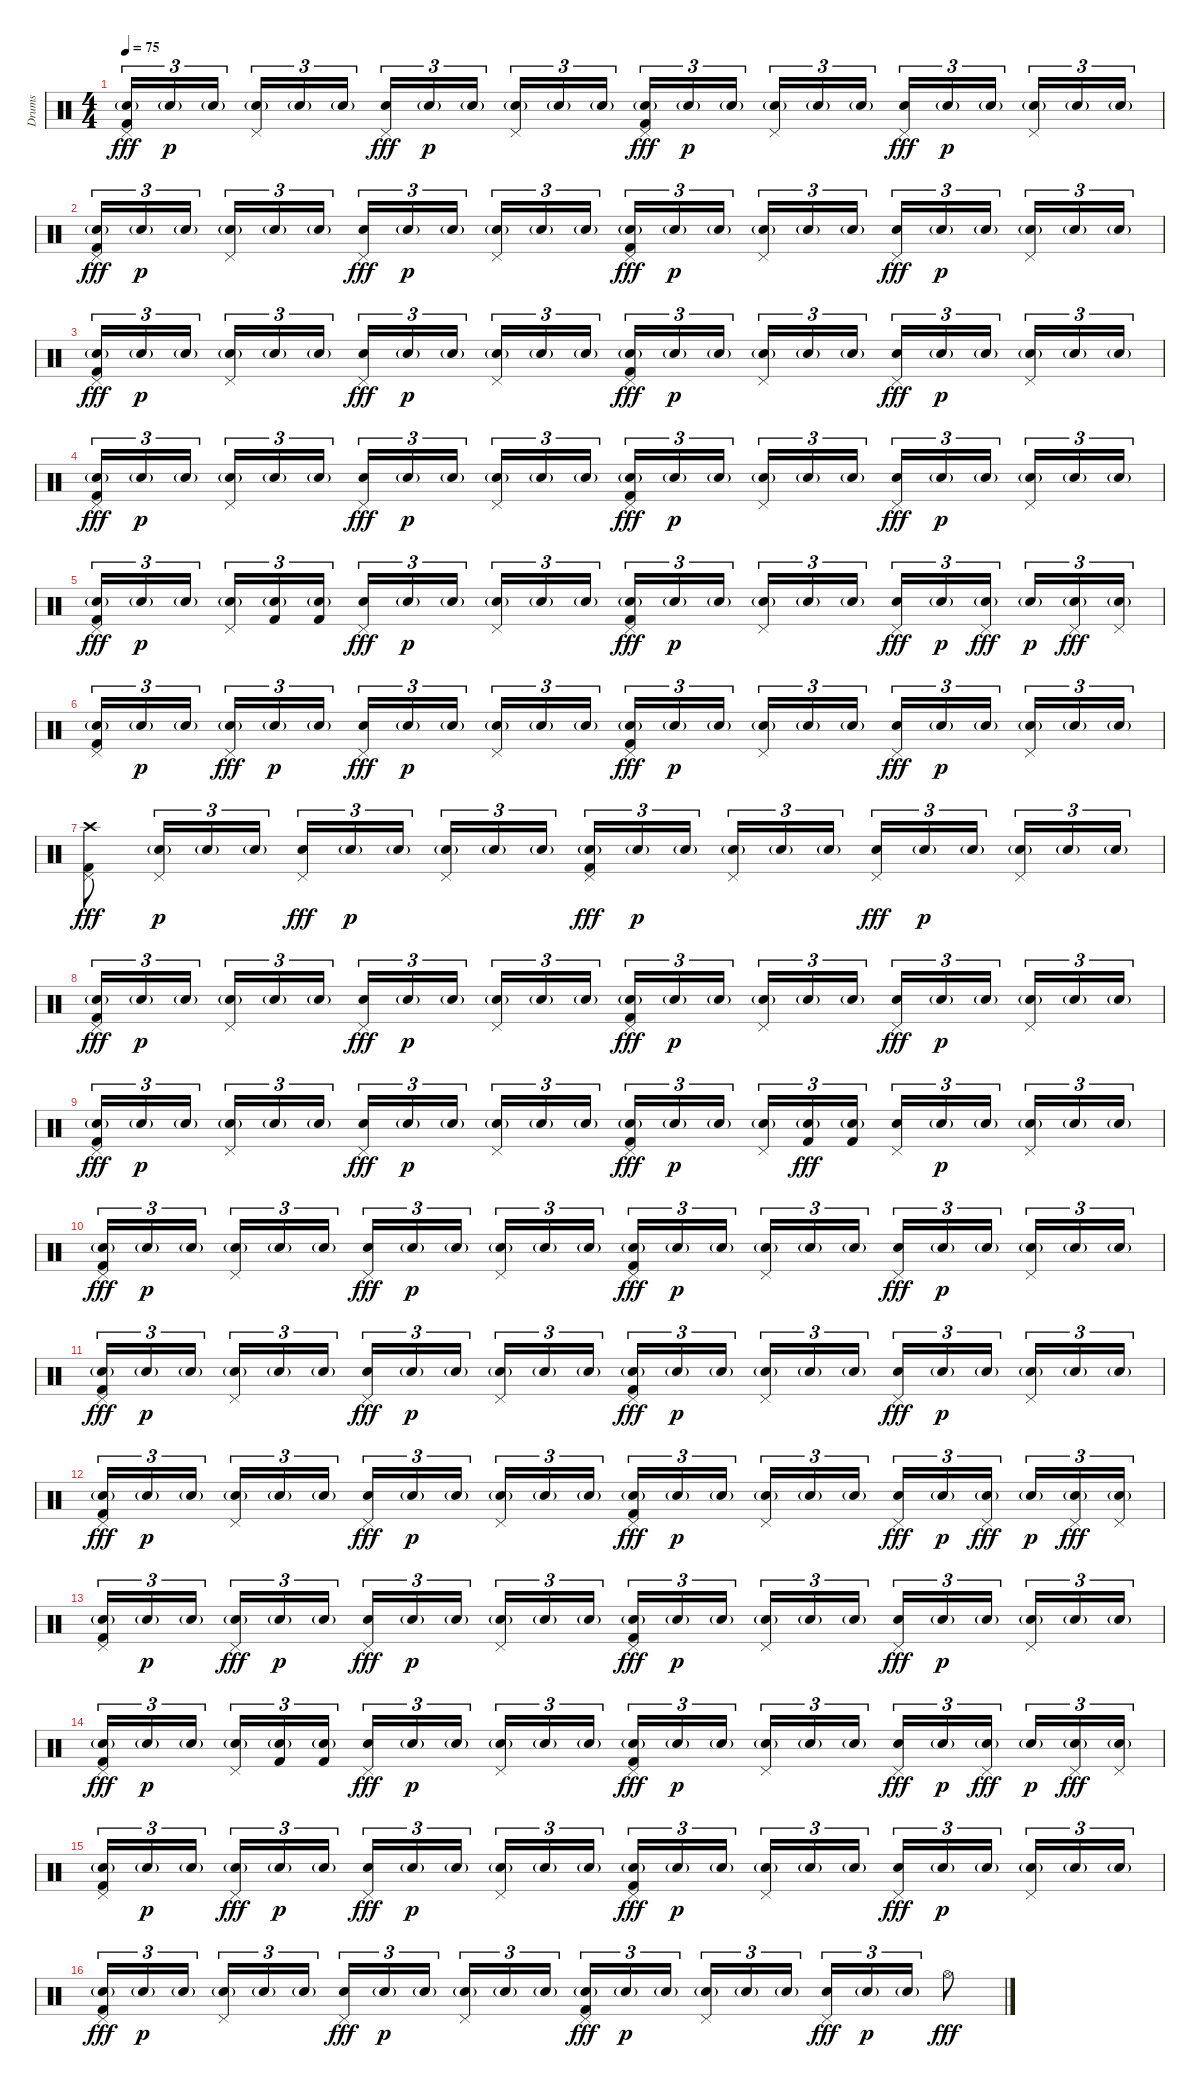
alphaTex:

\track ("Drums" "Drums") {instrument percussion}
\staff {score}
\articulation defaults
\ts (4 4)
\tempo 75
\clef neutral
\ks c
("Snare (hit) 2"{g} "Kick (hit) 2" "Pedal Hi-Hat (hit)").16{tu (3 2) dy fff} "Snare (hit) 2"{g}.16{tu (3 2) dy p} "Snare (hit) 2"{g}.16{tu (3 2)} ("Snare (hit) 2"{g} "Pedal Hi-Hat (hit)").16{tu (3 2)} "Snare (hit) 2"{g}.16{tu (3 2)} "Snare (hit) 2"{g}.16{tu (3 2)} ("Electric Snare (hit)" "Pedal Hi-Hat (hit)").16{tu (3 2) dy fff} "Snare (hit) 2"{g}.16{tu (3 2) dy p} "Snare (hit) 2"{g}.16{tu (3 2)} ("Snare (hit) 2"{g} "Pedal Hi-Hat (hit)").16{tu (3 2)} "Snare (hit) 2"{g}.16{tu (3 2)} "Snare (hit) 2"{g}.16{tu (3 2)} ("Snare (hit) 2"{g} "Kick (hit) 2" "Pedal Hi-Hat (hit)").16{tu (3 2) dy fff} "Snare (hit) 2"{g}.16{tu (3 2) dy p} "Snare (hit) 2"{g}.16{tu (3 2)} ("Snare (hit) 2"{g} "Pedal Hi-Hat (hit)").16{tu (3 2)} "Snare (hit) 2"{g}.16{tu (3 2)} "Snare (hit) 2"{g}.16{tu (3 2)} ("Electric Snare (hit)" "Pedal Hi-Hat (hit)").16{tu (3 2) dy fff} "Snare (hit) 2"{g}.16{tu (3 2) dy p} "Snare (hit) 2"{g}.16{tu (3 2)} ("Snare (hit) 2"{g} "Pedal Hi-Hat (hit)").16{tu (3 2)} "Snare (hit) 2"{g}.16{tu (3 2)} "Snare (hit) 2"{g}.16{tu (3 2)} |
("Snare (hit) 2"{g} "Kick (hit) 2" "Pedal Hi-Hat (hit)").16{tu (3 2) dy fff} "Snare (hit) 2"{g}.16{tu (3 2) dy p} "Snare (hit) 2"{g}.16{tu (3 2)} ("Snare (hit) 2"{g} "Pedal Hi-Hat (hit)").16{tu (3 2)} "Snare (hit) 2"{g}.16{tu (3 2)} "Snare (hit) 2"{g}.16{tu (3 2)} ("Electric Snare (hit)" "Pedal Hi-Hat (hit)").16{tu (3 2) dy fff} "Snare (hit) 2"{g}.16{tu (3 2) dy p} "Snare (hit) 2"{g}.16{tu (3 2)} ("Snare (hit) 2"{g} "Pedal Hi-Hat (hit)").16{tu (3 2)} "Snare (hit) 2"{g}.16{tu (3 2)} "Snare (hit) 2"{g}.16{tu (3 2)} ("Snare (hit) 2"{g} "Kick (hit) 2" "Pedal Hi-Hat (hit)").16{tu (3 2) dy fff} "Snare (hit) 2"{g}.16{tu (3 2) dy p} "Snare (hit) 2"{g}.16{tu (3 2)} ("Snare (hit) 2"{g} "Pedal Hi-Hat (hit)").16{tu (3 2)} "Snare (hit) 2"{g}.16{tu (3 2)} "Snare (hit) 2"{g}.16{tu (3 2)} ("Electric Snare (hit)" "Pedal Hi-Hat (hit)").16{tu (3 2) dy fff} "Snare (hit) 2"{g}.16{tu (3 2) dy p} "Snare (hit) 2"{g}.16{tu (3 2)} ("Snare (hit) 2"{g} "Pedal Hi-Hat (hit)").16{tu (3 2)} "Snare (hit) 2"{g}.16{tu (3 2)} "Snare (hit) 2"{g}.16{tu (3 2)} |
("Snare (hit) 2"{g} "Kick (hit) 2" "Pedal Hi-Hat (hit)").16{tu (3 2) dy fff} "Snare (hit) 2"{g}.16{tu (3 2) dy p} "Snare (hit) 2"{g}.16{tu (3 2)} ("Snare (hit) 2"{g} "Pedal Hi-Hat (hit)").16{tu (3 2)} "Snare (hit) 2"{g}.16{tu (3 2)} "Snare (hit) 2"{g}.16{tu (3 2)} ("Electric Snare (hit)" "Pedal Hi-Hat (hit)").16{tu (3 2) dy fff} "Snare (hit) 2"{g}.16{tu (3 2) dy p} "Snare (hit) 2"{g}.16{tu (3 2)} ("Snare (hit) 2"{g} "Pedal Hi-Hat (hit)").16{tu (3 2)} "Snare (hit) 2"{g}.16{tu (3 2)} "Snare (hit) 2"{g}.16{tu (3 2)} ("Snare (hit) 2"{g} "Kick (hit) 2" "Pedal Hi-Hat (hit)").16{tu (3 2) dy fff} "Snare (hit) 2"{g}.16{tu (3 2) dy p} "Snare (hit) 2"{g}.16{tu (3 2)} ("Snare (hit) 2"{g} "Pedal Hi-Hat (hit)").16{tu (3 2)} "Snare (hit) 2"{g}.16{tu (3 2)} "Snare (hit) 2"{g}.16{tu (3 2)} ("Electric Snare (hit)" "Pedal Hi-Hat (hit)").16{tu (3 2) dy fff} "Snare (hit) 2"{g}.16{tu (3 2) dy p} "Snare (hit) 2"{g}.16{tu (3 2)} ("Snare (hit) 2"{g} "Pedal Hi-Hat (hit)").16{tu (3 2)} "Snare (hit) 2"{g}.16{tu (3 2)} "Snare (hit) 2"{g}.16{tu (3 2)} |
("Snare (hit) 2"{g} "Kick (hit) 2" "Pedal Hi-Hat (hit)").16{tu (3 2) dy fff} "Snare (hit) 2"{g}.16{tu (3 2) dy p} "Snare (hit) 2"{g}.16{tu (3 2)} ("Snare (hit) 2"{g} "Pedal Hi-Hat (hit)").16{tu (3 2)} "Snare (hit) 2"{g}.16{tu (3 2)} "Snare (hit) 2"{g}.16{tu (3 2)} ("Electric Snare (hit)" "Pedal Hi-Hat (hit)").16{tu (3 2) dy fff} "Snare (hit) 2"{g}.16{tu (3 2) dy p} "Snare (hit) 2"{g}.16{tu (3 2)} ("Snare (hit) 2"{g} "Pedal Hi-Hat (hit)").16{tu (3 2)} "Snare (hit) 2"{g}.16{tu (3 2)} "Snare (hit) 2"{g}.16{tu (3 2)} ("Snare (hit) 2"{g} "Kick (hit) 2" "Pedal Hi-Hat (hit)").16{tu (3 2) dy fff} "Snare (hit) 2"{g}.16{tu (3 2) dy p} "Snare (hit) 2"{g}.16{tu (3 2)} ("Snare (hit) 2"{g} "Pedal Hi-Hat (hit)").16{tu (3 2)} "Snare (hit) 2"{g}.16{tu (3 2)} "Snare (hit) 2"{g}.16{tu (3 2)} ("Electric Snare (hit)" "Pedal Hi-Hat (hit)").16{tu (3 2) dy fff} "Snare (hit) 2"{g}.16{tu (3 2) dy p} "Snare (hit) 2"{g}.16{tu (3 2)} ("Snare (hit) 2"{g} "Pedal Hi-Hat (hit)").16{tu (3 2)} "Snare (hit) 2"{g}.16{tu (3 2)} "Snare (hit) 2"{g}.16{tu (3 2)} |
("Snare (hit) 2"{g} "Kick (hit) 2" "Pedal Hi-Hat (hit)").16{tu (3 2) dy fff} "Snare (hit) 2"{g}.16{tu (3 2) dy p} "Snare (hit) 2"{g}.16{tu (3 2)} ("Snare (hit) 2"{g} "Pedal Hi-Hat (hit)").16{tu (3 2)} ("Snare (hit) 2"{g} "Kick (hit) 2").16{tu (3 2)} ("Snare (hit) 2"{g} "Kick (hit) 2").16{tu (3 2)} ("Electric Snare (hit)" "Pedal Hi-Hat (hit)").16{tu (3 2) dy fff} "Snare (hit) 2"{g}.16{tu (3 2) dy p} "Snare (hit) 2"{g}.16{tu (3 2)} ("Snare (hit) 2"{g} "Pedal Hi-Hat (hit)").16{tu (3 2)} "Snare (hit) 2"{g}.16{tu (3 2)} "Snare (hit) 2"{g}.16{tu (3 2)} ("Snare (hit) 2"{g} "Kick (hit) 2" "Pedal Hi-Hat (hit)").16{tu (3 2) dy fff} "Snare (hit) 2"{g}.16{tu (3 2) dy p} "Snare (hit) 2"{g}.16{tu (3 2)} ("Snare (hit) 2"{g} "Pedal Hi-Hat (hit)").16{tu (3 2)} "Snare (hit) 2"{g}.16{tu (3 2)} "Snare (hit) 2"{g}.16{tu (3 2)} ("Electric Snare (hit)" "Pedal Hi-Hat (hit)").16{tu (3 2) dy fff} "Snare (hit) 2"{g}.16{tu (3 2) dy p} ("Snare (hit) 2"{g} "Pedal Hi-Hat (hit)").16{tu (3 2) dy fff} "Snare (hit) 2"{g}.16{tu (3 2) dy p} ("Snare (hit) 2"{g} "Pedal Hi-Hat (hit)").16{tu (3 2) dy fff} ("Snare (hit) 2"{g} "Pedal Hi-Hat (hit)").16{tu (3 2)} |
("Snare (hit) 2"{g} "Kick (hit) 2" "Pedal Hi-Hat (hit)").16{tu (3 2)} "Snare (hit) 2"{g}.16{tu (3 2) dy p} "Snare (hit) 2"{g}.16{tu (3 2)} ("Snare (hit) 2"{g} "Pedal Hi-Hat (hit)").16{tu (3 2) dy fff} "Snare (hit) 2"{g}.16{tu (3 2) dy p} "Snare (hit) 2"{g}.16{tu (3 2)} ("Electric Snare (hit)" "Pedal Hi-Hat (hit)").16{tu (3 2) dy fff} "Snare (hit) 2"{g}.16{tu (3 2) dy p} "Snare (hit) 2"{g}.16{tu (3 2)} ("Snare (hit) 2"{g} "Pedal Hi-Hat (hit)").16{tu (3 2)} "Snare (hit) 2"{g}.16{tu (3 2)} "Snare (hit) 2"{g}.16{tu (3 2)} ("Snare (hit) 2"{g} "Kick (hit) 2" "Pedal Hi-Hat (hit)").16{tu (3 2) dy fff} "Snare (hit) 2"{g}.16{tu (3 2) dy p} "Snare (hit) 2"{g}.16{tu (3 2)} ("Snare (hit) 2"{g} "Pedal Hi-Hat (hit)").16{tu (3 2)} "Snare (hit) 2"{g}.16{tu (3 2)} "Snare (hit) 2"{g}.16{tu (3 2)} ("Electric Snare (hit)" "Pedal Hi-Hat (hit)").16{tu (3 2) dy fff} "Snare (hit) 2"{g}.16{tu (3 2) dy p} "Snare (hit) 2"{g}.16{tu (3 2)} ("Snare (hit) 2"{g} "Pedal Hi-Hat (hit)").16{tu (3 2)} "Snare (hit) 2"{g}.16{tu (3 2)} "Snare (hit) 2"{g}.16{tu (3 2)} |
("Crash high (hit)" "Kick (hit) 2" "Pedal Hi-Hat (hit)").8{dy fff} ("Snare (hit) 2"{g} "Pedal Hi-Hat (hit)").16{tu (3 2) dy p} "Snare (hit) 2"{g}.16{tu (3 2)} "Snare (hit) 2"{g}.16{tu (3 2)} ("Electric Snare (hit)" "Pedal Hi-Hat (hit)").16{tu (3 2) dy fff} "Snare (hit) 2"{g}.16{tu (3 2) dy p} "Snare (hit) 2"{g}.16{tu (3 2)} ("Snare (hit) 2"{g} "Pedal Hi-Hat (hit)").16{tu (3 2)} "Snare (hit) 2"{g}.16{tu (3 2)} "Snare (hit) 2"{g}.16{tu (3 2)} ("Snare (hit) 2"{g} "Kick (hit) 2" "Pedal Hi-Hat (hit)").16{tu (3 2) dy fff} "Snare (hit) 2"{g}.16{tu (3 2) dy p} "Snare (hit) 2"{g}.16{tu (3 2)} ("Snare (hit) 2"{g} "Pedal Hi-Hat (hit)").16{tu (3 2)} "Snare (hit) 2"{g}.16{tu (3 2)} "Snare (hit) 2"{g}.16{tu (3 2)} ("Electric Snare (hit)" "Pedal Hi-Hat (hit)").16{tu (3 2) dy fff} "Snare (hit) 2"{g}.16{tu (3 2) dy p} "Snare (hit) 2"{g}.16{tu (3 2)} ("Snare (hit) 2"{g} "Pedal Hi-Hat (hit)").16{tu (3 2)} "Snare (hit) 2"{g}.16{tu (3 2)} "Snare (hit) 2"{g}.16{tu (3 2)} |
("Snare (hit) 2"{g} "Kick (hit) 2" "Pedal Hi-Hat (hit)").16{tu (3 2) dy fff} "Snare (hit) 2"{g}.16{tu (3 2) dy p} "Snare (hit) 2"{g}.16{tu (3 2)} ("Snare (hit) 2"{g} "Pedal Hi-Hat (hit)").16{tu (3 2)} "Snare (hit) 2"{g}.16{tu (3 2)} "Snare (hit) 2"{g}.16{tu (3 2)} ("Electric Snare (hit)" "Pedal Hi-Hat (hit)").16{tu (3 2) dy fff} "Snare (hit) 2"{g}.16{tu (3 2) dy p} "Snare (hit) 2"{g}.16{tu (3 2)} ("Snare (hit) 2"{g} "Pedal Hi-Hat (hit)").16{tu (3 2)} "Snare (hit) 2"{g}.16{tu (3 2)} "Snare (hit) 2"{g}.16{tu (3 2)} ("Snare (hit) 2"{g} "Kick (hit) 2" "Pedal Hi-Hat (hit)").16{tu (3 2) dy fff} "Snare (hit) 2"{g}.16{tu (3 2) dy p} "Snare (hit) 2"{g}.16{tu (3 2)} ("Snare (hit) 2"{g} "Pedal Hi-Hat (hit)").16{tu (3 2)} "Snare (hit) 2"{g}.16{tu (3 2)} "Snare (hit) 2"{g}.16{tu (3 2)} ("Electric Snare (hit)" "Pedal Hi-Hat (hit)").16{tu (3 2) dy fff} "Snare (hit) 2"{g}.16{tu (3 2) dy p} "Snare (hit) 2"{g}.16{tu (3 2)} ("Snare (hit) 2"{g} "Pedal Hi-Hat (hit)").16{tu (3 2)} "Snare (hit) 2"{g}.16{tu (3 2)} "Snare (hit) 2"{g}.16{tu (3 2)} |
("Snare (hit) 2"{g} "Kick (hit) 2" "Pedal Hi-Hat (hit)").16{tu (3 2) dy fff} "Snare (hit) 2"{g}.16{tu (3 2) dy p} "Snare (hit) 2"{g}.16{tu (3 2)} ("Snare (hit) 2"{g} "Pedal Hi-Hat (hit)").16{tu (3 2)} "Snare (hit) 2"{g}.16{tu (3 2)} "Snare (hit) 2"{g}.16{tu (3 2)} ("Electric Snare (hit)" "Pedal Hi-Hat (hit)").16{tu (3 2) dy fff} "Snare (hit) 2"{g}.16{tu (3 2) dy p} "Snare (hit) 2"{g}.16{tu (3 2)} ("Snare (hit) 2"{g} "Pedal Hi-Hat (hit)").16{tu (3 2)} "Snare (hit) 2"{g}.16{tu (3 2)} "Snare (hit) 2"{g}.16{tu (3 2)} ("Snare (hit) 2"{g} "Kick (hit) 2" "Pedal Hi-Hat (hit)").16{tu (3 2) dy fff} "Snare (hit) 2"{g}.16{tu (3 2) dy p} "Snare (hit) 2"{g}.16{tu (3 2)} ("Snare (hit) 2"{g} "Pedal Hi-Hat (hit)").16{tu (3 2)} ("Snare (hit) 2"{g} "Kick (hit) 2").16{tu (3 2) dy fff} ("Snare (hit) 2"{g} "Kick (hit) 2").16{tu (3 2)} ("Electric Snare (hit)" "Pedal Hi-Hat (hit)").16{tu (3 2)} "Snare (hit) 2"{g}.16{tu (3 2) dy p} "Snare (hit) 2"{g}.16{tu (3 2)} ("Snare (hit) 2"{g} "Pedal Hi-Hat (hit)").16{tu (3 2)} "Snare (hit) 2"{g}.16{tu (3 2)} "Snare (hit) 2"{g}.16{tu (3 2)} |
("Snare (hit) 2"{g} "Kick (hit) 2" "Pedal Hi-Hat (hit)").16{tu (3 2) dy fff} "Snare (hit) 2"{g}.16{tu (3 2) dy p} "Snare (hit) 2"{g}.16{tu (3 2)} ("Snare (hit) 2"{g} "Pedal Hi-Hat (hit)").16{tu (3 2)} "Snare (hit) 2"{g}.16{tu (3 2)} "Snare (hit) 2"{g}.16{tu (3 2)} ("Electric Snare (hit)" "Pedal Hi-Hat (hit)").16{tu (3 2) dy fff} "Snare (hit) 2"{g}.16{tu (3 2) dy p} "Snare (hit) 2"{g}.16{tu (3 2)} ("Snare (hit) 2"{g} "Pedal Hi-Hat (hit)").16{tu (3 2)} "Snare (hit) 2"{g}.16{tu (3 2)} "Snare (hit) 2"{g}.16{tu (3 2)} ("Snare (hit) 2"{g} "Kick (hit) 2" "Pedal Hi-Hat (hit)").16{tu (3 2) dy fff} "Snare (hit) 2"{g}.16{tu (3 2) dy p} "Snare (hit) 2"{g}.16{tu (3 2)} ("Snare (hit) 2"{g} "Pedal Hi-Hat (hit)").16{tu (3 2)} "Snare (hit) 2"{g}.16{tu (3 2)} "Snare (hit) 2"{g}.16{tu (3 2)} ("Electric Snare (hit)" "Pedal Hi-Hat (hit)").16{tu (3 2) dy fff} "Snare (hit) 2"{g}.16{tu (3 2) dy p} "Snare (hit) 2"{g}.16{tu (3 2)} ("Snare (hit) 2"{g} "Pedal Hi-Hat (hit)").16{tu (3 2)} "Snare (hit) 2"{g}.16{tu (3 2)} "Snare (hit) 2"{g}.16{tu (3 2)} |
("Snare (hit) 2"{g} "Kick (hit) 2" "Pedal Hi-Hat (hit)").16{tu (3 2) dy fff} "Snare (hit) 2"{g}.16{tu (3 2) dy p} "Snare (hit) 2"{g}.16{tu (3 2)} ("Snare (hit) 2"{g} "Pedal Hi-Hat (hit)").16{tu (3 2)} "Snare (hit) 2"{g}.16{tu (3 2)} "Snare (hit) 2"{g}.16{tu (3 2)} ("Electric Snare (hit)" "Pedal Hi-Hat (hit)").16{tu (3 2) dy fff} "Snare (hit) 2"{g}.16{tu (3 2) dy p} "Snare (hit) 2"{g}.16{tu (3 2)} ("Snare (hit) 2"{g} "Pedal Hi-Hat (hit)").16{tu (3 2)} "Snare (hit) 2"{g}.16{tu (3 2)} "Snare (hit) 2"{g}.16{tu (3 2)} ("Snare (hit) 2"{g} "Kick (hit) 2" "Pedal Hi-Hat (hit)").16{tu (3 2) dy fff} "Snare (hit) 2"{g}.16{tu (3 2) dy p} "Snare (hit) 2"{g}.16{tu (3 2)} ("Snare (hit) 2"{g} "Pedal Hi-Hat (hit)").16{tu (3 2)} "Snare (hit) 2"{g}.16{tu (3 2)} "Snare (hit) 2"{g}.16{tu (3 2)} ("Electric Snare (hit)" "Pedal Hi-Hat (hit)").16{tu (3 2) dy fff} "Snare (hit) 2"{g}.16{tu (3 2) dy p} "Snare (hit) 2"{g}.16{tu (3 2)} ("Snare (hit) 2"{g} "Pedal Hi-Hat (hit)").16{tu (3 2)} "Snare (hit) 2"{g}.16{tu (3 2)} "Snare (hit) 2"{g}.16{tu (3 2)} |
("Snare (hit) 2"{g} "Kick (hit) 2" "Pedal Hi-Hat (hit)").16{tu (3 2) dy fff} "Snare (hit) 2"{g}.16{tu (3 2) dy p} "Snare (hit) 2"{g}.16{tu (3 2)} ("Snare (hit) 2"{g} "Pedal Hi-Hat (hit)").16{tu (3 2)} "Snare (hit) 2"{g}.16{tu (3 2)} "Snare (hit) 2"{g}.16{tu (3 2)} ("Electric Snare (hit)" "Pedal Hi-Hat (hit)").16{tu (3 2) dy fff} "Snare (hit) 2"{g}.16{tu (3 2) dy p} "Snare (hit) 2"{g}.16{tu (3 2)} ("Snare (hit) 2"{g} "Pedal Hi-Hat (hit)").16{tu (3 2)} "Snare (hit) 2"{g}.16{tu (3 2)} "Snare (hit) 2"{g}.16{tu (3 2)} ("Snare (hit) 2"{g} "Kick (hit) 2" "Pedal Hi-Hat (hit)").16{tu (3 2) dy fff} "Snare (hit) 2"{g}.16{tu (3 2) dy p} "Snare (hit) 2"{g}.16{tu (3 2)} ("Snare (hit) 2"{g} "Pedal Hi-Hat (hit)").16{tu (3 2)} "Snare (hit) 2"{g}.16{tu (3 2)} "Snare (hit) 2"{g}.16{tu (3 2)} ("Electric Snare (hit)" "Pedal Hi-Hat (hit)").16{tu (3 2) dy fff} "Snare (hit) 2"{g}.16{tu (3 2) dy p} ("Snare (hit) 2"{g} "Pedal Hi-Hat (hit)").16{tu (3 2) dy fff} "Snare (hit) 2"{g}.16{tu (3 2) dy p} ("Snare (hit) 2"{g} "Pedal Hi-Hat (hit)").16{tu (3 2) dy fff} ("Snare (hit) 2"{g} "Pedal Hi-Hat (hit)").16{tu (3 2)} |
("Snare (hit) 2"{g} "Kick (hit) 2" "Pedal Hi-Hat (hit)").16{tu (3 2)} "Snare (hit) 2"{g}.16{tu (3 2) dy p} "Snare (hit) 2"{g}.16{tu (3 2)} ("Snare (hit) 2"{g} "Pedal Hi-Hat (hit)").16{tu (3 2) dy fff} "Snare (hit) 2"{g}.16{tu (3 2) dy p} "Snare (hit) 2"{g}.16{tu (3 2)} ("Electric Snare (hit)" "Pedal Hi-Hat (hit)").16{tu (3 2) dy fff} "Snare (hit) 2"{g}.16{tu (3 2) dy p} "Snare (hit) 2"{g}.16{tu (3 2)} ("Snare (hit) 2"{g} "Pedal Hi-Hat (hit)").16{tu (3 2)} "Snare (hit) 2"{g}.16{tu (3 2)} "Snare (hit) 2"{g}.16{tu (3 2)} ("Snare (hit) 2"{g} "Kick (hit) 2" "Pedal Hi-Hat (hit)").16{tu (3 2) dy fff} "Snare (hit) 2"{g}.16{tu (3 2) dy p} "Snare (hit) 2"{g}.16{tu (3 2)} ("Snare (hit) 2"{g} "Pedal Hi-Hat (hit)").16{tu (3 2)} "Snare (hit) 2"{g}.16{tu (3 2)} "Snare (hit) 2"{g}.16{tu (3 2)} ("Electric Snare (hit)" "Pedal Hi-Hat (hit)").16{tu (3 2) dy fff} "Snare (hit) 2"{g}.16{tu (3 2) dy p} "Snare (hit) 2"{g}.16{tu (3 2)} ("Snare (hit) 2"{g} "Pedal Hi-Hat (hit)").16{tu (3 2)} "Snare (hit) 2"{g}.16{tu (3 2)} "Snare (hit) 2"{g}.16{tu (3 2)} |
("Snare (hit) 2"{g} "Kick (hit) 2" "Pedal Hi-Hat (hit)").16{tu (3 2) dy fff} "Snare (hit) 2"{g}.16{tu (3 2) dy p} "Snare (hit) 2"{g}.16{tu (3 2)} ("Snare (hit) 2"{g} "Pedal Hi-Hat (hit)").16{tu (3 2)} ("Snare (hit) 2"{g} "Kick (hit) 2").16{tu (3 2)} ("Snare (hit) 2"{g} "Kick (hit) 2").16{tu (3 2)} ("Electric Snare (hit)" "Pedal Hi-Hat (hit)").16{tu (3 2) dy fff} "Snare (hit) 2"{g}.16{tu (3 2) dy p} "Snare (hit) 2"{g}.16{tu (3 2)} ("Snare (hit) 2"{g} "Pedal Hi-Hat (hit)").16{tu (3 2)} "Snare (hit) 2"{g}.16{tu (3 2)} "Snare (hit) 2"{g}.16{tu (3 2)} ("Snare (hit) 2"{g} "Kick (hit) 2" "Pedal Hi-Hat (hit)").16{tu (3 2) dy fff} "Snare (hit) 2"{g}.16{tu (3 2) dy p} "Snare (hit) 2"{g}.16{tu (3 2)} ("Snare (hit) 2"{g} "Pedal Hi-Hat (hit)").16{tu (3 2)} "Snare (hit) 2"{g}.16{tu (3 2)} "Snare (hit) 2"{g}.16{tu (3 2)} ("Electric Snare (hit)" "Pedal Hi-Hat (hit)").16{tu (3 2) dy fff} "Snare (hit) 2"{g}.16{tu (3 2) dy p} ("Snare (hit) 2"{g} "Pedal Hi-Hat (hit)").16{tu (3 2) dy fff} "Snare (hit) 2"{g}.16{tu (3 2) dy p} ("Snare (hit) 2"{g} "Pedal Hi-Hat (hit)").16{tu (3 2) dy fff} ("Snare (hit) 2"{g} "Pedal Hi-Hat (hit)").16{tu (3 2)} |
("Snare (hit) 2"{g} "Kick (hit) 2" "Pedal Hi-Hat (hit)").16{tu (3 2)} "Snare (hit) 2"{g}.16{tu (3 2) dy p} "Snare (hit) 2"{g}.16{tu (3 2)} ("Snare (hit) 2"{g} "Pedal Hi-Hat (hit)").16{tu (3 2) dy fff} "Snare (hit) 2"{g}.16{tu (3 2) dy p} "Snare (hit) 2"{g}.16{tu (3 2)} ("Electric Snare (hit)" "Pedal Hi-Hat (hit)").16{tu (3 2) dy fff} "Snare (hit) 2"{g}.16{tu (3 2) dy p} "Snare (hit) 2"{g}.16{tu (3 2)} ("Snare (hit) 2"{g} "Pedal Hi-Hat (hit)").16{tu (3 2)} "Snare (hit) 2"{g}.16{tu (3 2)} "Snare (hit) 2"{g}.16{tu (3 2)} ("Snare (hit) 2"{g} "Kick (hit) 2" "Pedal Hi-Hat (hit)").16{tu (3 2) dy fff} "Snare (hit) 2"{g}.16{tu (3 2) dy p} "Snare (hit) 2"{g}.16{tu (3 2)} ("Snare (hit) 2"{g} "Pedal Hi-Hat (hit)").16{tu (3 2)} "Snare (hit) 2"{g}.16{tu (3 2)} "Snare (hit) 2"{g}.16{tu (3 2)} ("Electric Snare (hit)" "Pedal Hi-Hat (hit)").16{tu (3 2) dy fff} "Snare (hit) 2"{g}.16{tu (3 2) dy p} "Snare (hit) 2"{g}.16{tu (3 2)} ("Snare (hit) 2"{g} "Pedal Hi-Hat (hit)").16{tu (3 2)} "Snare (hit) 2"{g}.16{tu (3 2)} "Snare (hit) 2"{g}.16{tu (3 2)} |
("Snare (hit) 2"{g} "Kick (hit) 2" "Pedal Hi-Hat (hit)").16{tu (3 2) dy fff} "Snare (hit) 2"{g}.16{tu (3 2) dy p} "Snare (hit) 2"{g}.16{tu (3 2)} ("Snare (hit) 2"{g} "Pedal Hi-Hat (hit)").16{tu (3 2)} "Snare (hit) 2"{g}.16{tu (3 2)} "Snare (hit) 2"{g}.16{tu (3 2)} ("Electric Snare (hit)" "Pedal Hi-Hat (hit)").16{tu (3 2) dy fff} "Snare (hit) 2"{g}.16{tu (3 2) dy p} "Snare (hit) 2"{g}.16{tu (3 2)} ("Snare (hit) 2"{g} "Pedal Hi-Hat (hit)").16{tu (3 2)} "Snare (hit) 2"{g}.16{tu (3 2)} "Snare (hit) 2"{g}.16{tu (3 2)} ("Snare (hit) 2"{g} "Kick (hit) 2" "Pedal Hi-Hat (hit)").16{tu (3 2) dy fff} "Snare (hit) 2"{g}.16{tu (3 2) dy p} "Snare (hit) 2"{g}.16{tu (3 2)} ("Snare (hit) 2"{g} "Pedal Hi-Hat (hit)").16{tu (3 2)} "Snare (hit) 2"{g}.16{tu (3 2)} "Snare (hit) 2"{g}.16{tu (3 2)} ("Electric Snare (hit)" "Pedal Hi-Hat (hit)").16{tu (3 2) dy fff} "Snare (hit) 2"{g}.16{tu (3 2) dy p} "Snare (hit) 2"{g}.16{tu (3 2)} "Hi-Hat (open)".8{dy fff}
